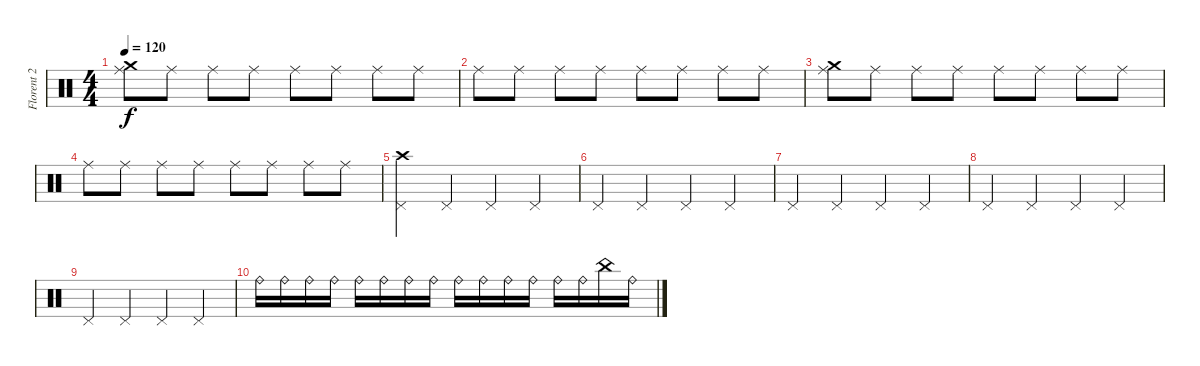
\track ("Florent 2" "Florent 2") {instrument percussion}
\staff {score}
\articulation defaults
\ts (4 4)
\tempo 120
\clef neutral
\ks c
("Ride (middle)" "Crash medium (hit)").8{dy f} "Ride (middle)".8 "Ride (middle)".8 "Ride (middle)".8 "Ride (middle)".8 "Ride (middle)".8 "Ride (middle)".8 "Ride (middle)".8 |
"Ride (middle)".8 "Ride (middle)".8 "Ride (middle)".8 "Ride (middle)".8 "Ride (middle)".8 "Ride (middle)".8 "Ride (middle)".8 "Ride (middle)".8 |
("Ride (middle)" "Crash medium (hit)").8 "Ride (middle)".8 "Ride (middle)".8 "Ride (middle)".8 "Ride (middle)".8 "Ride (middle)".8 "Ride (middle)".8 "Ride (middle)".8 |
"Ride (middle)".8 "Ride (middle)".8 "Ride (middle)".8 "Ride (middle)".8 "Ride (middle)".8 "Ride (middle)".8 "Ride (middle)".8 "Ride (middle)".8 |
("Pedal Hi-Hat (hit)" "Crash high (hit)").4 "Pedal Hi-Hat (hit)".4 "Pedal Hi-Hat (hit)".4 "Pedal Hi-Hat (hit)".4 |
"Pedal Hi-Hat (hit)".4 "Pedal Hi-Hat (hit)".4 "Pedal Hi-Hat (hit)".4 "Pedal Hi-Hat (hit)".4 |
"Pedal Hi-Hat (hit)".4 "Pedal Hi-Hat (hit)".4 "Pedal Hi-Hat (hit)".4 "Pedal Hi-Hat (hit)".4 |
"Pedal Hi-Hat (hit)".4 "Pedal Hi-Hat (hit)".4 "Pedal Hi-Hat (hit)".4 "Pedal Hi-Hat (hit)".4 |
"Pedal Hi-Hat (hit)".4 "Pedal Hi-Hat (hit)".4 "Pedal Hi-Hat (hit)".4 "Pedal Hi-Hat (hit)".4 |
"Ride (bell)".16 "Ride (bell)".16 "Ride (bell)".16 "Ride (bell)".16 "Ride (bell)".16 "Ride (bell)".16 "Ride (bell)".16 "Ride (bell)".16 "Ride (bell)".16 "Ride (bell)".16 "Ride (bell)".16 "Ride (bell)".16 "Ride (bell)".16 "Ride (bell)".16 "China (hit)".16 "Ride (bell)".16
